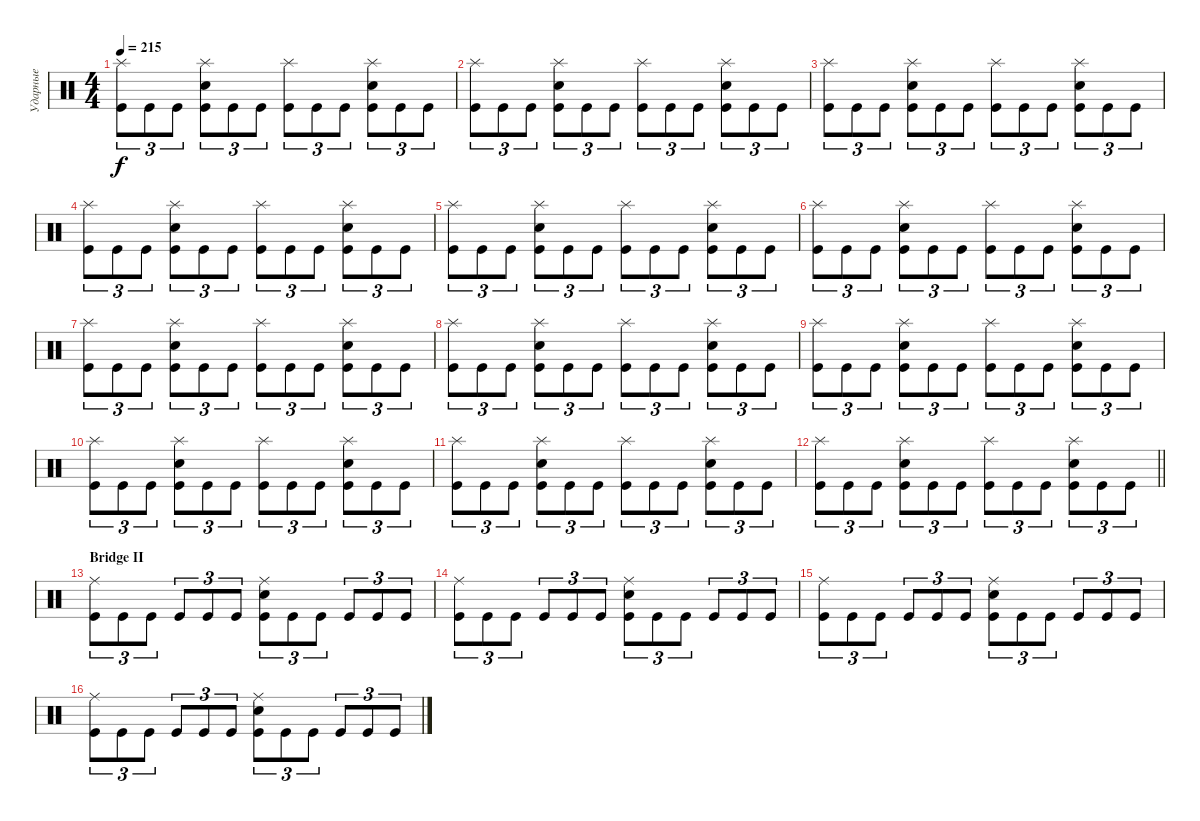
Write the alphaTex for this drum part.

\track ("Ударные" "Ударные") {instrument percussion}
\staff {score}
\articulation defaults
\ts (4 4)
\tempo 215
\clef neutral
\ks c
("Splash (hit)" "Kick (hit)").8{tu (3 2) dy f} "Kick (hit)".8{tu (3 2)} "Kick (hit)".8{tu (3 2)} ("Splash (hit)" "Electric Snare (hit)" "Kick (hit)").8{tu (3 2)} "Kick (hit)".8{tu (3 2)} "Kick (hit)".8{tu (3 2)} ("Splash (hit)" "Kick (hit)").8{tu (3 2)} "Kick (hit)".8{tu (3 2)} "Kick (hit)".8{tu (3 2)} ("Splash (hit)" "Electric Snare (hit)" "Kick (hit)").8{tu (3 2)} "Kick (hit)".8{tu (3 2)} "Kick (hit)".8{tu (3 2)} |
("Splash (hit)" "Kick (hit)").8{tu (3 2)} "Kick (hit)".8{tu (3 2)} "Kick (hit)".8{tu (3 2)} ("Splash (hit)" "Electric Snare (hit)" "Kick (hit)").8{tu (3 2)} "Kick (hit)".8{tu (3 2)} "Kick (hit)".8{tu (3 2)} ("Splash (hit)" "Kick (hit)").8{tu (3 2)} "Kick (hit)".8{tu (3 2)} "Kick (hit)".8{tu (3 2)} ("Splash (hit)" "Electric Snare (hit)" "Kick (hit)").8{tu (3 2)} "Kick (hit)".8{tu (3 2)} "Kick (hit)".8{tu (3 2)} |
("Splash (hit)" "Kick (hit)").8{tu (3 2)} "Kick (hit)".8{tu (3 2)} "Kick (hit)".8{tu (3 2)} ("Splash (hit)" "Electric Snare (hit)" "Kick (hit)").8{tu (3 2)} "Kick (hit)".8{tu (3 2)} "Kick (hit)".8{tu (3 2)} ("Splash (hit)" "Kick (hit)").8{tu (3 2)} "Kick (hit)".8{tu (3 2)} "Kick (hit)".8{tu (3 2)} ("Splash (hit)" "Electric Snare (hit)" "Kick (hit)").8{tu (3 2)} "Kick (hit)".8{tu (3 2)} "Kick (hit)".8{tu (3 2)} |
("Splash (hit)" "Kick (hit)").8{tu (3 2)} "Kick (hit)".8{tu (3 2)} "Kick (hit)".8{tu (3 2)} ("Splash (hit)" "Electric Snare (hit)" "Kick (hit)").8{tu (3 2)} "Kick (hit)".8{tu (3 2)} "Kick (hit)".8{tu (3 2)} ("Splash (hit)" "Kick (hit)").8{tu (3 2)} "Kick (hit)".8{tu (3 2)} "Kick (hit)".8{tu (3 2)} ("Splash (hit)" "Electric Snare (hit)" "Kick (hit)").8{tu (3 2)} "Kick (hit)".8{tu (3 2)} "Kick (hit)".8{tu (3 2)} |
("Splash (hit)" "Kick (hit)").8{tu (3 2)} "Kick (hit)".8{tu (3 2)} "Kick (hit)".8{tu (3 2)} ("Splash (hit)" "Electric Snare (hit)" "Kick (hit)").8{tu (3 2)} "Kick (hit)".8{tu (3 2)} "Kick (hit)".8{tu (3 2)} ("Splash (hit)" "Kick (hit)").8{tu (3 2)} "Kick (hit)".8{tu (3 2)} "Kick (hit)".8{tu (3 2)} ("Splash (hit)" "Electric Snare (hit)" "Kick (hit)").8{tu (3 2)} "Kick (hit)".8{tu (3 2)} "Kick (hit)".8{tu (3 2)} |
("Splash (hit)" "Kick (hit)").8{tu (3 2)} "Kick (hit)".8{tu (3 2)} "Kick (hit)".8{tu (3 2)} ("Splash (hit)" "Electric Snare (hit)" "Kick (hit)").8{tu (3 2)} "Kick (hit)".8{tu (3 2)} "Kick (hit)".8{tu (3 2)} ("Splash (hit)" "Kick (hit)").8{tu (3 2)} "Kick (hit)".8{tu (3 2)} "Kick (hit)".8{tu (3 2)} ("Splash (hit)" "Electric Snare (hit)" "Kick (hit)").8{tu (3 2)} "Kick (hit)".8{tu (3 2)} "Kick (hit)".8{tu (3 2)} |
("Splash (hit)" "Kick (hit)").8{tu (3 2)} "Kick (hit)".8{tu (3 2)} "Kick (hit)".8{tu (3 2)} ("Splash (hit)" "Electric Snare (hit)" "Kick (hit)").8{tu (3 2)} "Kick (hit)".8{tu (3 2)} "Kick (hit)".8{tu (3 2)} ("Splash (hit)" "Kick (hit)").8{tu (3 2)} "Kick (hit)".8{tu (3 2)} "Kick (hit)".8{tu (3 2)} ("Splash (hit)" "Electric Snare (hit)" "Kick (hit)").8{tu (3 2)} "Kick (hit)".8{tu (3 2)} "Kick (hit)".8{tu (3 2)} |
("Splash (hit)" "Kick (hit)").8{tu (3 2)} "Kick (hit)".8{tu (3 2)} "Kick (hit)".8{tu (3 2)} ("Splash (hit)" "Electric Snare (hit)" "Kick (hit)").8{tu (3 2)} "Kick (hit)".8{tu (3 2)} "Kick (hit)".8{tu (3 2)} ("Splash (hit)" "Kick (hit)").8{tu (3 2)} "Kick (hit)".8{tu (3 2)} "Kick (hit)".8{tu (3 2)} ("Splash (hit)" "Electric Snare (hit)" "Kick (hit)").8{tu (3 2)} "Kick (hit)".8{tu (3 2)} "Kick (hit)".8{tu (3 2)} |
("Splash (hit)" "Kick (hit)").8{tu (3 2)} "Kick (hit)".8{tu (3 2)} "Kick (hit)".8{tu (3 2)} ("Splash (hit)" "Electric Snare (hit)" "Kick (hit)").8{tu (3 2)} "Kick (hit)".8{tu (3 2)} "Kick (hit)".8{tu (3 2)} ("Splash (hit)" "Kick (hit)").8{tu (3 2)} "Kick (hit)".8{tu (3 2)} "Kick (hit)".8{tu (3 2)} ("Splash (hit)" "Electric Snare (hit)" "Kick (hit)").8{tu (3 2)} "Kick (hit)".8{tu (3 2)} "Kick (hit)".8{tu (3 2)} |
("Splash (hit)" "Kick (hit)").8{tu (3 2)} "Kick (hit)".8{tu (3 2)} "Kick (hit)".8{tu (3 2)} ("Splash (hit)" "Electric Snare (hit)" "Kick (hit)").8{tu (3 2)} "Kick (hit)".8{tu (3 2)} "Kick (hit)".8{tu (3 2)} ("Splash (hit)" "Kick (hit)").8{tu (3 2)} "Kick (hit)".8{tu (3 2)} "Kick (hit)".8{tu (3 2)} ("Splash (hit)" "Electric Snare (hit)" "Kick (hit)").8{tu (3 2)} "Kick (hit)".8{tu (3 2)} "Kick (hit)".8{tu (3 2)} |
("Splash (hit)" "Kick (hit)").8{tu (3 2)} "Kick (hit)".8{tu (3 2)} "Kick (hit)".8{tu (3 2)} ("Splash (hit)" "Electric Snare (hit)" "Kick (hit)").8{tu (3 2)} "Kick (hit)".8{tu (3 2)} "Kick (hit)".8{tu (3 2)} ("Splash (hit)" "Kick (hit)").8{tu (3 2)} "Kick (hit)".8{tu (3 2)} "Kick (hit)".8{tu (3 2)} ("Splash (hit)" "Electric Snare (hit)" "Kick (hit)").8{tu (3 2)} "Kick (hit)".8{tu (3 2)} "Kick (hit)".8{tu (3 2)} |
\barLineRight lightlight
("Splash (hit)" "Kick (hit)").8{tu (3 2)} "Kick (hit)".8{tu (3 2)} "Kick (hit)".8{tu (3 2)} ("Splash (hit)" "Electric Snare (hit)" "Kick (hit)").8{tu (3 2)} "Kick (hit)".8{tu (3 2)} "Kick (hit)".8{tu (3 2)} ("Splash (hit)" "Kick (hit)").8{tu (3 2)} "Kick (hit)".8{tu (3 2)} "Kick (hit)".8{tu (3 2)} ("Splash (hit)" "Electric Snare (hit)" "Kick (hit)").8{tu (3 2)} "Kick (hit)".8{tu (3 2)} "Kick (hit)".8{tu (3 2)} |
\section ("" "Bridge II")
("Ride (middle)" "Kick (hit)").8{tu (3 2)} "Kick (hit)".8{tu (3 2)} "Kick (hit)".8{tu (3 2)} "Kick (hit)".8{tu (3 2)} "Kick (hit)".8{tu (3 2)} "Kick (hit)".8{tu (3 2)} ("Ride (middle)" "Electric Snare (hit)" "Kick (hit)").8{tu (3 2)} "Kick (hit)".8{tu (3 2)} "Kick (hit)".8{tu (3 2)} "Kick (hit)".8{tu (3 2)} "Kick (hit)".8{tu (3 2)} "Kick (hit)".8{tu (3 2)} |
("Ride (middle)" "Kick (hit)").8{tu (3 2)} "Kick (hit)".8{tu (3 2)} "Kick (hit)".8{tu (3 2)} "Kick (hit)".8{tu (3 2)} "Kick (hit)".8{tu (3 2)} "Kick (hit)".8{tu (3 2)} ("Ride (middle)" "Electric Snare (hit)" "Kick (hit)").8{tu (3 2)} "Kick (hit)".8{tu (3 2)} "Kick (hit)".8{tu (3 2)} "Kick (hit)".8{tu (3 2)} "Kick (hit)".8{tu (3 2)} "Kick (hit)".8{tu (3 2)} |
("Ride (middle)" "Kick (hit)").8{tu (3 2)} "Kick (hit)".8{tu (3 2)} "Kick (hit)".8{tu (3 2)} "Kick (hit)".8{tu (3 2)} "Kick (hit)".8{tu (3 2)} "Kick (hit)".8{tu (3 2)} ("Ride (middle)" "Electric Snare (hit)" "Kick (hit)").8{tu (3 2)} "Kick (hit)".8{tu (3 2)} "Kick (hit)".8{tu (3 2)} "Kick (hit)".8{tu (3 2)} "Kick (hit)".8{tu (3 2)} "Kick (hit)".8{tu (3 2)} |
("Ride (middle)" "Kick (hit)").8{tu (3 2)} "Kick (hit)".8{tu (3 2)} "Kick (hit)".8{tu (3 2)} "Kick (hit)".8{tu (3 2)} "Kick (hit)".8{tu (3 2)} "Kick (hit)".8{tu (3 2)} ("Ride (middle)" "Electric Snare (hit)" "Kick (hit)").8{tu (3 2)} "Kick (hit)".8{tu (3 2)} "Kick (hit)".8{tu (3 2)} "Kick (hit)".8{tu (3 2)} "Kick (hit)".8{tu (3 2)} "Kick (hit)".8{tu (3 2)}
